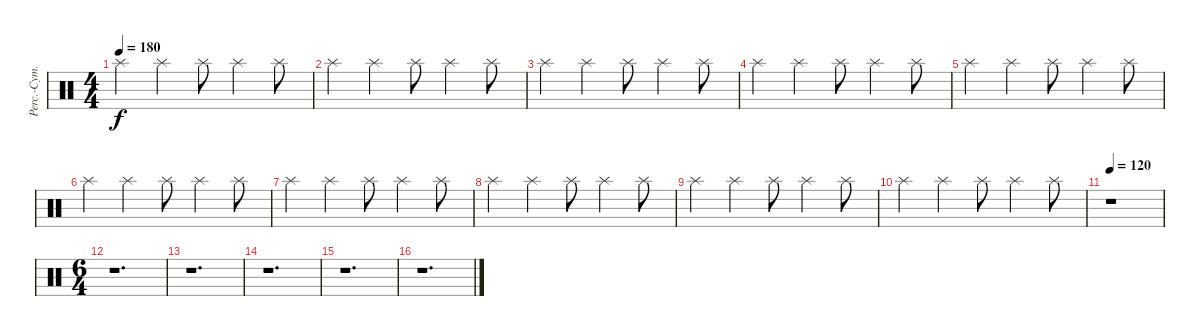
\track ("Perc.-Cym. 2" "Perc.-Cym.") {instrument percussion}
\staff {score}
\articulation defaults
\ts (4 4)
\tempo 180
\clef neutral
\ks c "Splash (hit)".4{dy f} "Splash (hit)".4 "Splash (hit)".8 "Splash (hit)".4 "Splash (hit)".8
|
"Splash (hit)".4 "Splash (hit)".4 "Splash (hit)".8 "Splash (hit)".4 "Splash (hit)".8 |
"Splash (hit)".4 "Splash (hit)".4 "Splash (hit)".8 "Splash (hit)".4 "Splash (hit)".8 |
"Splash (hit)".4 "Splash (hit)".4 "Splash (hit)".8 "Splash (hit)".4 "Splash (hit)".8 |
"Splash (hit)".4 "Splash (hit)".4 "Splash (hit)".8 "Splash (hit)".4 "Splash (hit)".8 |
"Splash (hit)".4 "Splash (hit)".4 "Splash (hit)".8 "Splash (hit)".4 "Splash (hit)".8 |
"Splash (hit)".4 "Splash (hit)".4 "Splash (hit)".8 "Splash (hit)".4 "Splash (hit)".8 |
"Splash (hit)".4 "Splash (hit)".4 "Splash (hit)".8 "Splash (hit)".4 "Splash (hit)".8 |
"Splash (hit)".4 "Splash (hit)".4 "Splash (hit)".8 "Splash (hit)".4 "Splash (hit)".8 |
"Splash (hit)".4 "Splash (hit)".4 "Splash (hit)".8 "Splash (hit)".4 "Splash (hit)".8 |
\tempo 120
r.1 |
\ts (6 4)
r.1{d} |
r.1{d} |
r.1{d} |
r.1{d} |
r.1{d}
